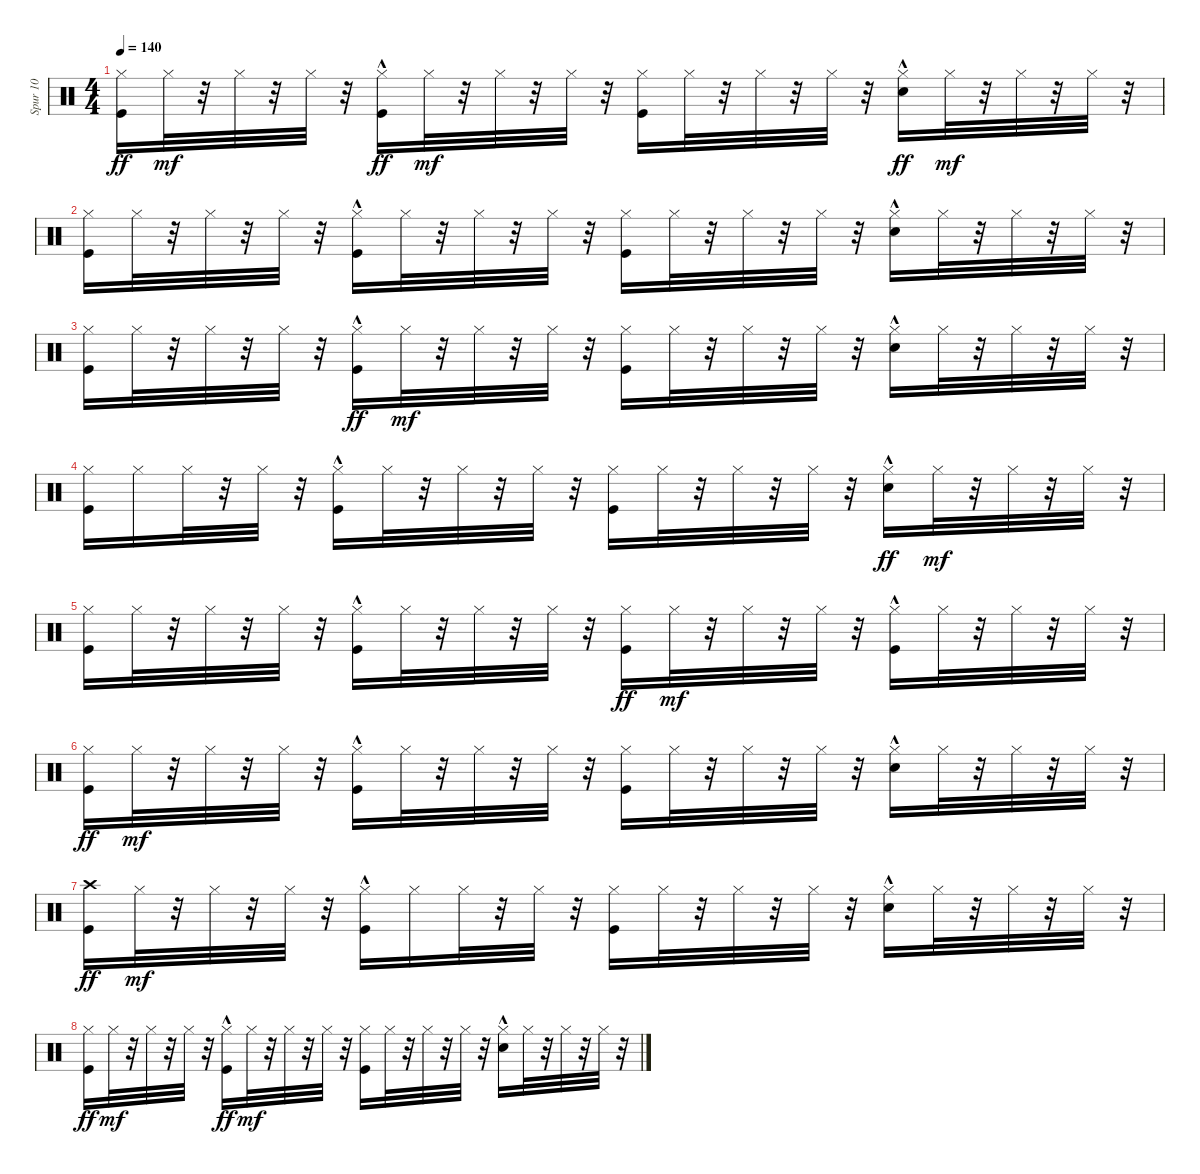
\track ("Spur 10" "Spur 10") {instrument percussion}
\staff {score}
\articulation defaults
\ts (4 4)
\tempo 140
\clef neutral
\ks c
("Hi-Hat (closed)" "Kick (hit)").16{dy ff} "Hi-Hat (closed)".32{dy mf} r.32 "Hi-Hat (closed)".32 r.32 "Hi-Hat (closed)".32 r.32 ("Hi-Hat (closed)" "Kick (hit)"{hac}).16{dy ff} "Hi-Hat (closed)".32{dy mf} r.32 "Hi-Hat (closed)".32 r.32 "Hi-Hat (closed)".32 r.32 ("Kick (hit)" "Hi-Hat (closed)").16 "Hi-Hat (closed)".32 r.32 "Hi-Hat (closed)".32 r.32 "Hi-Hat (closed)".32 r.32 ("Hi-Hat (closed)" "Snare (hit) 2"{hac}).16{dy ff} "Hi-Hat (closed)".32{dy mf} r.32 "Hi-Hat (closed)".32 r.32 "Hi-Hat (closed)".32 r.32 |
("Kick (hit)" "Hi-Hat (closed)").16 "Hi-Hat (closed)".32 r.32 "Hi-Hat (closed)".32 r.32 "Hi-Hat (closed)".32 r.32 ("Kick (hit)"{hac} "Hi-Hat (closed)").16 "Hi-Hat (closed)".32 r.32 "Hi-Hat (closed)".32 r.32 "Hi-Hat (closed)".32 r.32 ("Kick (hit)" "Hi-Hat (closed)").16 "Hi-Hat (closed)".32 r.32 "Hi-Hat (closed)".32 r.32 "Hi-Hat (closed)".32 r.32 ("Snare (hit) 2"{hac} "Hi-Hat (closed)").16 "Hi-Hat (closed)".32 r.32 "Hi-Hat (closed)".32 r.32 "Hi-Hat (closed)".32 r.32 |
("Kick (hit)" "Hi-Hat (closed)").16 "Hi-Hat (closed)".32 r.32 "Hi-Hat (closed)".32 r.32 "Hi-Hat (closed)".32 r.32 ("Hi-Hat (closed)" "Kick (hit)"{hac}).16{dy ff} "Hi-Hat (closed)".32{dy mf} r.32 "Hi-Hat (closed)".32 r.32 "Hi-Hat (closed)".32 r.32 ("Kick (hit)" "Hi-Hat (closed)").16 "Hi-Hat (closed)".32 r.32 "Hi-Hat (closed)".32 r.32 "Hi-Hat (closed)".32 r.32 ("Snare (hit) 2"{hac} "Hi-Hat (closed)").16 "Hi-Hat (closed)".32 r.32 "Hi-Hat (closed)".32 r.32 "Hi-Hat (closed)".32 r.32 |
("Kick (hit)" "Hi-Hat (closed)").16 "Hi-Hat (closed)".16 "Hi-Hat (closed)".32 r.32 "Hi-Hat (closed)".32 r.32 ("Kick (hit)"{hac} "Hi-Hat (closed)").16 "Hi-Hat (closed)".32 r.32 "Hi-Hat (closed)".32 r.32 "Hi-Hat (closed)".32 r.32 ("Kick (hit)" "Hi-Hat (closed)").16 "Hi-Hat (closed)".32 r.32 "Hi-Hat (closed)".32 r.32 "Hi-Hat (closed)".32 r.32 ("Hi-Hat (closed)" "Snare (hit) 2"{hac}).16{dy ff} "Hi-Hat (closed)".32{dy mf} r.32 "Hi-Hat (closed)".32 r.32 "Hi-Hat (closed)".32 r.32 |
("Kick (hit)" "Hi-Hat (closed)").16 "Hi-Hat (closed)".32 r.32 "Hi-Hat (closed)".32 r.32 "Hi-Hat (closed)".32 r.32 ("Kick (hit)"{hac} "Hi-Hat (closed)").16 "Hi-Hat (closed)".32 r.32 "Hi-Hat (closed)".32 r.32 "Hi-Hat (closed)".32 r.32 ("Hi-Hat (closed)" "Kick (hit)").16{dy ff} "Hi-Hat (closed)".32{dy mf} r.32 "Hi-Hat (closed)".32 r.32 "Hi-Hat (closed)".32 r.32 ("Kick (hit)"{hac} "Hi-Hat (closed)").16 "Hi-Hat (closed)".32 r.32 "Hi-Hat (closed)".32 r.32 "Hi-Hat (closed)".32 r.32 |
("Hi-Hat (closed)" "Kick (hit)").16{dy ff} "Hi-Hat (closed)".32{dy mf} r.32 "Hi-Hat (closed)".32 r.32 "Hi-Hat (closed)".32 r.32 ("Kick (hit)"{hac} "Hi-Hat (closed)").16 "Hi-Hat (closed)".32 r.32 "Hi-Hat (closed)".32 r.32 "Hi-Hat (closed)".32 r.32 ("Kick (hit)" "Hi-Hat (closed)").16 "Hi-Hat (closed)".32 r.32 "Hi-Hat (closed)".32 r.32 "Hi-Hat (closed)".32 r.32 ("Snare (hit) 2"{hac} "Hi-Hat (closed)").16 "Hi-Hat (closed)".32 r.32 "Hi-Hat (closed)".32 r.32 "Hi-Hat (closed)".32 r.32 |
("Crash high (hit)" "Kick (hit)").16{dy ff} "Hi-Hat (closed)".32{dy mf} r.32 "Hi-Hat (closed)".32 r.32 "Hi-Hat (closed)".32 r.32 ("Kick (hit)"{hac} "Hi-Hat (closed)").16 "Hi-Hat (closed)".16 "Hi-Hat (closed)".32 r.32 "Hi-Hat (closed)".32 r.32 ("Kick (hit)" "Hi-Hat (closed)").16 "Hi-Hat (closed)".32 r.32 "Hi-Hat (closed)".32 r.32 "Hi-Hat (closed)".32 r.32 ("Snare (hit) 2"{hac} "Hi-Hat (closed)").16 "Hi-Hat (closed)".32 r.32 "Hi-Hat (closed)".32 r.32 "Hi-Hat (closed)".32 r.32 |
("Hi-Hat (closed)" "Kick (hit)").16{dy ff} "Hi-Hat (closed)".32{dy mf} r.32 "Hi-Hat (closed)".32 r.32 "Hi-Hat (closed)".32 r.32 ("Hi-Hat (closed)" "Kick (hit)"{hac}).16{dy ff} "Hi-Hat (closed)".32{dy mf} r.32 "Hi-Hat (closed)".32 r.32 "Hi-Hat (closed)".32 r.32 ("Kick (hit)" "Hi-Hat (closed)").16 "Hi-Hat (closed)".32 r.32 "Hi-Hat (closed)".32 r.32 "Hi-Hat (closed)".32 r.32 ("Snare (hit) 2"{hac} "Hi-Hat (closed)").16 "Hi-Hat (closed)".32 r.32 "Hi-Hat (closed)".32 r.32 "Hi-Hat (closed)".32 r.32
